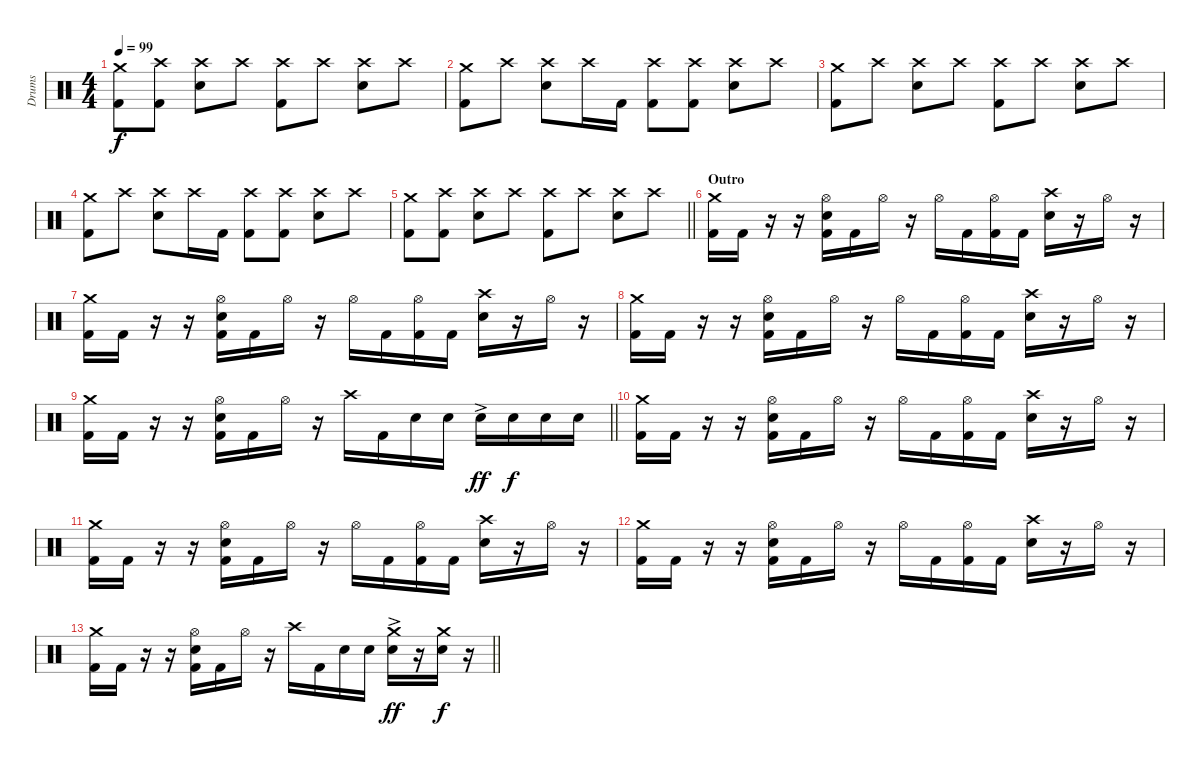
\track ("Drums" "Drums") {instrument percussion}
\staff {score}
\articulation defaults
\ts (4 4)
\tempo 99
\clef neutral
\ks c
("Crash medium (hit)" "Kick (hit) 2").8{dy f} ("Crash high (hit)" "Kick (hit) 2").8 ("Crash high (hit)" "Electric Snare (hit)").8 "Crash high (hit)".8 ("Crash high (hit)" "Kick (hit) 2").8 "Crash high (hit)".8 ("Crash high (hit)" "Electric Snare (hit)").8 "Crash high (hit)".8 |
("Crash medium (hit)" "Kick (hit) 2").8 "Crash high (hit)".8 ("Crash high (hit)" "Electric Snare (hit)").8 "Crash high (hit)".16 "Kick (hit) 2".16 ("Crash high (hit)" "Kick (hit) 2").8 ("Crash high (hit)" "Kick (hit) 2").8 ("Crash high (hit)" "Electric Snare (hit)").8 "Crash high (hit)".8 |
("Crash medium (hit)" "Kick (hit) 2").8 "Crash high (hit)".8 ("Crash high (hit)" "Electric Snare (hit)").8 "Crash high (hit)".8 ("Crash high (hit)" "Kick (hit) 2").8 "Crash high (hit)".8 ("Crash high (hit)" "Electric Snare (hit)").8 "Crash high (hit)".8 |
("Crash medium (hit)" "Kick (hit) 2").8 "Crash high (hit)".8 ("Crash high (hit)" "Electric Snare (hit)").8 "Crash high (hit)".16 "Kick (hit) 2".16 ("Crash high (hit)" "Kick (hit) 2").8 ("Crash high (hit)" "Kick (hit) 2").8 ("Crash high (hit)" "Electric Snare (hit)").8 "Crash high (hit)".8 |
\barLineRight lightlight
("Crash medium (hit)" "Kick (hit) 2").8 ("Crash high (hit)" "Kick (hit) 2").8 ("Crash high (hit)" "Electric Snare (hit)").8 "Crash high (hit)".8 ("Crash high (hit)" "Kick (hit) 2").8 "Crash high (hit)".8 ("Crash high (hit)" "Electric Snare (hit)").8 "Crash high (hit)".8 |
\section ("" "Outro")
("Crash medium (hit)" "Kick (hit) 2").16 "Kick (hit) 2".16 r.16 r.16 ("Hi-Hat (open)" "Electric Snare (hit)" "Kick (hit) 2").16 "Kick (hit) 2".16 "Hi-Hat (open)".16 r.16 "Hi-Hat (open)".16 "Kick (hit) 2".16 ("Hi-Hat (open)" "Kick (hit) 2").16 "Kick (hit) 2".16 ("Crash high (hit)" "Electric Snare (hit)").16 r.16 "Hi-Hat (open)".16 r.16 |
("Crash medium (hit)" "Kick (hit) 2").16 "Kick (hit) 2".16 r.16 r.16 ("Hi-Hat (open)" "Electric Snare (hit)" "Kick (hit) 2").16 "Kick (hit) 2".16 "Hi-Hat (open)".16 r.16 "Hi-Hat (open)".16 "Kick (hit) 2".16 ("Hi-Hat (open)" "Kick (hit) 2").16 "Kick (hit) 2".16 ("Crash high (hit)" "Electric Snare (hit)").16 r.16 "Hi-Hat (open)".16 r.16 |
("Crash medium (hit)" "Kick (hit) 2").16 "Kick (hit) 2".16 r.16 r.16 ("Hi-Hat (open)" "Electric Snare (hit)" "Kick (hit) 2").16 "Kick (hit) 2".16 "Hi-Hat (open)".16 r.16 "Hi-Hat (open)".16 "Kick (hit) 2".16 ("Hi-Hat (open)" "Kick (hit) 2").16 "Kick (hit) 2".16 ("Crash high (hit)" "Electric Snare (hit)").16 r.16 "Hi-Hat (open)".16 r.16 |
\barLineRight lightlight
("Crash medium (hit)" "Kick (hit) 2").16 "Kick (hit) 2".16 r.16 r.16 ("Hi-Hat (open)" "Electric Snare (hit)" "Kick (hit) 2").16 "Kick (hit) 2".16 "Hi-Hat (open)".16 r.16 "Crash high (hit)".16 "Kick (hit) 2".16 "Electric Snare (hit)".16 "Electric Snare (hit)".16 "Electric Snare (hit)"{ac}.16{dy ff} "Electric Snare (hit)".16{dy f} "Electric Snare (hit)".16 "Electric Snare (hit)".16 |
("Crash medium (hit)" "Kick (hit) 2").16 "Kick (hit) 2".16 r.16 r.16 ("Hi-Hat (open)" "Electric Snare (hit)" "Kick (hit) 2").16 "Kick (hit) 2".16 "Hi-Hat (open)".16 r.16 "Hi-Hat (open)".16 "Kick (hit) 2".16 ("Hi-Hat (open)" "Kick (hit) 2").16 "Kick (hit) 2".16 ("Crash high (hit)" "Electric Snare (hit)").16 r.16 "Hi-Hat (open)".16 r.16 |
("Crash medium (hit)" "Kick (hit) 2").16 "Kick (hit) 2".16 r.16 r.16 ("Hi-Hat (open)" "Electric Snare (hit)" "Kick (hit) 2").16 "Kick (hit) 2".16 "Hi-Hat (open)".16 r.16 "Hi-Hat (open)".16 "Kick (hit) 2".16 ("Hi-Hat (open)" "Kick (hit) 2").16 "Kick (hit) 2".16 ("Crash high (hit)" "Electric Snare (hit)").16 r.16 "Hi-Hat (open)".16 r.16 |
("Crash medium (hit)" "Kick (hit) 2").16 "Kick (hit) 2".16 r.16 r.16 ("Hi-Hat (open)" "Electric Snare (hit)" "Kick (hit) 2").16 "Kick (hit) 2".16 "Hi-Hat (open)".16 r.16 "Hi-Hat (open)".16 "Kick (hit) 2".16 ("Hi-Hat (open)" "Kick (hit) 2").16 "Kick (hit) 2".16 ("Crash high (hit)" "Electric Snare (hit)").16 r.16 "Hi-Hat (open)".16 r.16 |
\barLineRight lightlight
("Crash medium (hit)" "Kick (hit) 2").16 "Kick (hit) 2".16 r.16 r.16 ("Hi-Hat (open)" "Electric Snare (hit)" "Kick (hit) 2").16 "Kick (hit) 2".16 "Hi-Hat (open)".16 r.16 "Crash high (hit)".16 "Kick (hit) 2".16 "Electric Snare (hit)".16 "Electric Snare (hit)".16 ("Crash medium (hit)" "Electric Snare (hit)"{ac}).16{dy ff} r.16 ("Crash medium (hit)" "Electric Snare (hit)").16{dy f} r.16
